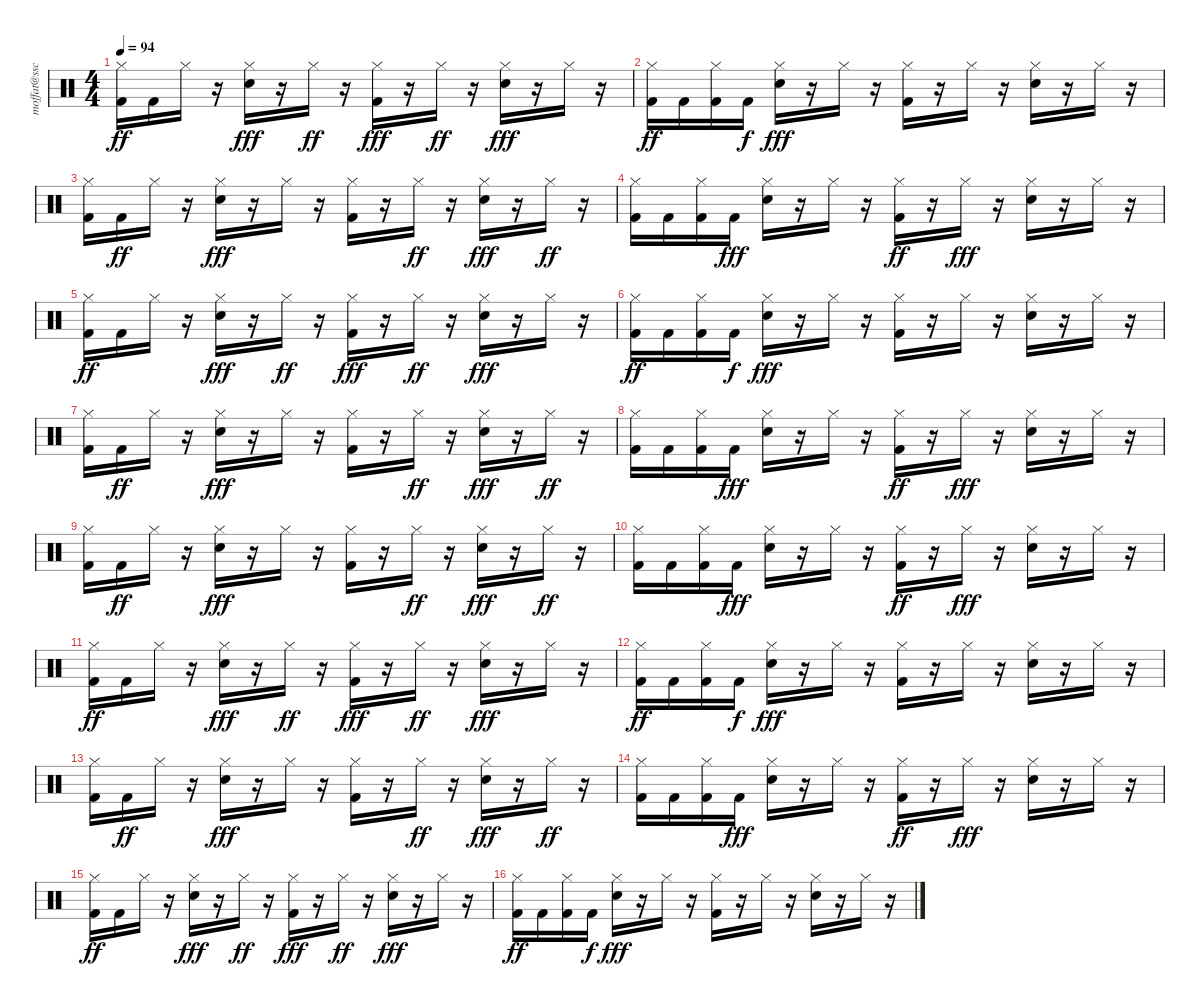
\track ("moffat@sscl." "moffat@ssc") {instrument percussion}
\staff {score}
\articulation defaults
\ts (4 4)
\tempo 94
\clef neutral
\ks c
("Kick (hit) 2" "Hi-Hat (closed)").16{dy ff} "Kick (hit) 2".16 "Hi-Hat (closed)".16 r.16 ("Hi-Hat (closed)" "Snare (hit) 2").16{dy fff} r.16 "Hi-Hat (closed)".16{dy ff} r.16 ("Kick (hit) 2" "Hi-Hat (closed)").16{dy fff} r.16 "Hi-Hat (closed)".16{dy ff} r.16 ("Snare (hit) 2" "Hi-Hat (closed)").16{dy fff} r.16 "Hi-Hat (closed)".16 r.16 |
("Hi-Hat (closed)" "Kick (hit) 2").16{dy ff} "Kick (hit) 2".16 ("Hi-Hat (closed)" "Kick (hit) 2").16 "Kick (hit) 2".16{dy f} ("Hi-Hat (closed)" "Snare (hit) 2").16{dy fff} r.16 "Hi-Hat (closed)".16 r.16 ("Hi-Hat (closed)" "Kick (hit) 2").16 r.16 "Hi-Hat (closed)".16 r.16 ("Snare (hit) 2" "Hi-Hat (closed)").16 r.16 "Hi-Hat (closed)".16 r.16 |
("Kick (hit) 2" "Hi-Hat (closed)").16 "Kick (hit) 2".16{dy ff} "Hi-Hat (closed)".16 r.16 ("Snare (hit) 2" "Hi-Hat (closed)").16{dy fff} r.16 "Hi-Hat (closed)".16 r.16 ("Kick (hit) 2" "Hi-Hat (closed)").16 r.16 "Hi-Hat (closed)".16{dy ff} r.16 ("Snare (hit) 2" "Hi-Hat (closed)").16{dy fff} r.16 "Hi-Hat (closed)".16{dy ff} r.16 |
("Hi-Hat (closed)" "Kick (hit) 2").16 "Kick (hit) 2".16 ("Hi-Hat (closed)" "Kick (hit) 2").16 "Kick (hit) 2".16{dy fff} ("Hi-Hat (closed)" "Snare (hit) 2").16 r.16 "Hi-Hat (closed)".16 r.16 ("Hi-Hat (closed)" "Kick (hit) 2").16{dy ff} r.16 "Hi-Hat (closed)".16{dy fff} r.16 ("Hi-Hat (closed)" "Snare (hit) 2").16 r.16 "Hi-Hat (closed)".16 r.16 |
("Kick (hit) 2" "Hi-Hat (closed)").16{dy ff} "Kick (hit) 2".16 "Hi-Hat (closed)".16 r.16 ("Hi-Hat (closed)" "Snare (hit) 2").16{dy fff} r.16 "Hi-Hat (closed)".16{dy ff} r.16 ("Kick (hit) 2" "Hi-Hat (closed)").16{dy fff} r.16 "Hi-Hat (closed)".16{dy ff} r.16 ("Snare (hit) 2" "Hi-Hat (closed)").16{dy fff} r.16 "Hi-Hat (closed)".16 r.16 |
("Hi-Hat (closed)" "Kick (hit) 2").16{dy ff} "Kick (hit) 2".16 ("Hi-Hat (closed)" "Kick (hit) 2").16 "Kick (hit) 2".16{dy f} ("Hi-Hat (closed)" "Snare (hit) 2").16{dy fff} r.16 "Hi-Hat (closed)".16 r.16 ("Hi-Hat (closed)" "Kick (hit) 2").16 r.16 "Hi-Hat (closed)".16 r.16 ("Snare (hit) 2" "Hi-Hat (closed)").16 r.16 "Hi-Hat (closed)".16 r.16 |
("Kick (hit) 2" "Hi-Hat (closed)").16 "Kick (hit) 2".16{dy ff} "Hi-Hat (closed)".16 r.16 ("Snare (hit) 2" "Hi-Hat (closed)").16{dy fff} r.16 "Hi-Hat (closed)".16 r.16 ("Kick (hit) 2" "Hi-Hat (closed)").16 r.16 "Hi-Hat (closed)".16{dy ff} r.16 ("Snare (hit) 2" "Hi-Hat (closed)").16{dy fff} r.16 "Hi-Hat (closed)".16{dy ff} r.16 |
("Hi-Hat (closed)" "Kick (hit) 2").16 "Kick (hit) 2".16 ("Hi-Hat (closed)" "Kick (hit) 2").16 "Kick (hit) 2".16{dy fff} ("Hi-Hat (closed)" "Snare (hit) 2").16 r.16 "Hi-Hat (closed)".16 r.16 ("Hi-Hat (closed)" "Kick (hit) 2").16{dy ff} r.16 "Hi-Hat (closed)".16{dy fff} r.16 ("Hi-Hat (closed)" "Snare (hit) 2").16 r.16 "Hi-Hat (closed)".16 r.16 |
("Kick (hit) 2" "Hi-Hat (closed)").16 "Kick (hit) 2".16{dy ff} "Hi-Hat (closed)".16 r.16 ("Snare (hit) 2" "Hi-Hat (closed)").16{dy fff} r.16 "Hi-Hat (closed)".16 r.16 ("Kick (hit) 2" "Hi-Hat (closed)").16 r.16 "Hi-Hat (closed)".16{dy ff} r.16 ("Snare (hit) 2" "Hi-Hat (closed)").16{dy fff} r.16 "Hi-Hat (closed)".16{dy ff} r.16 |
("Hi-Hat (closed)" "Kick (hit) 2").16 "Kick (hit) 2".16 ("Hi-Hat (closed)" "Kick (hit) 2").16 "Kick (hit) 2".16{dy fff} ("Hi-Hat (closed)" "Snare (hit) 2").16 r.16 "Hi-Hat (closed)".16 r.16 ("Hi-Hat (closed)" "Kick (hit) 2").16{dy ff} r.16 "Hi-Hat (closed)".16{dy fff} r.16 ("Hi-Hat (closed)" "Snare (hit) 2").16 r.16 "Hi-Hat (closed)".16 r.16 |
("Kick (hit) 2" "Hi-Hat (closed)").16{dy ff} "Kick (hit) 2".16 "Hi-Hat (closed)".16 r.16 ("Hi-Hat (closed)" "Snare (hit) 2").16{dy fff} r.16 "Hi-Hat (closed)".16{dy ff} r.16 ("Kick (hit) 2" "Hi-Hat (closed)").16{dy fff} r.16 "Hi-Hat (closed)".16{dy ff} r.16 ("Snare (hit) 2" "Hi-Hat (closed)").16{dy fff} r.16 "Hi-Hat (closed)".16 r.16 |
("Hi-Hat (closed)" "Kick (hit) 2").16{dy ff} "Kick (hit) 2".16 ("Hi-Hat (closed)" "Kick (hit) 2").16 "Kick (hit) 2".16{dy f} ("Hi-Hat (closed)" "Snare (hit) 2").16{dy fff} r.16 "Hi-Hat (closed)".16 r.16 ("Hi-Hat (closed)" "Kick (hit) 2").16 r.16 "Hi-Hat (closed)".16 r.16 ("Snare (hit) 2" "Hi-Hat (closed)").16 r.16 "Hi-Hat (closed)".16 r.16 |
("Kick (hit) 2" "Hi-Hat (closed)").16 "Kick (hit) 2".16{dy ff} "Hi-Hat (closed)".16 r.16 ("Snare (hit) 2" "Hi-Hat (closed)").16{dy fff} r.16 "Hi-Hat (closed)".16 r.16 ("Kick (hit) 2" "Hi-Hat (closed)").16 r.16 "Hi-Hat (closed)".16{dy ff} r.16 ("Snare (hit) 2" "Hi-Hat (closed)").16{dy fff} r.16 "Hi-Hat (closed)".16{dy ff} r.16 |
("Hi-Hat (closed)" "Kick (hit) 2").16 "Kick (hit) 2".16 ("Hi-Hat (closed)" "Kick (hit) 2").16 "Kick (hit) 2".16{dy fff} ("Hi-Hat (closed)" "Snare (hit) 2").16 r.16 "Hi-Hat (closed)".16 r.16 ("Hi-Hat (closed)" "Kick (hit) 2").16{dy ff} r.16 "Hi-Hat (closed)".16{dy fff} r.16 ("Hi-Hat (closed)" "Snare (hit) 2").16 r.16 "Hi-Hat (closed)".16 r.16 |
("Kick (hit) 2" "Hi-Hat (closed)").16{dy ff} "Kick (hit) 2".16 "Hi-Hat (closed)".16 r.16 ("Hi-Hat (closed)" "Snare (hit) 2").16{dy fff} r.16 "Hi-Hat (closed)".16{dy ff} r.16 ("Kick (hit) 2" "Hi-Hat (closed)").16{dy fff} r.16 "Hi-Hat (closed)".16{dy ff} r.16 ("Snare (hit) 2" "Hi-Hat (closed)").16{dy fff} r.16 "Hi-Hat (closed)".16 r.16 |
("Hi-Hat (closed)" "Kick (hit) 2").16{dy ff} "Kick (hit) 2".16 ("Hi-Hat (closed)" "Kick (hit) 2").16 "Kick (hit) 2".16{dy f} ("Hi-Hat (closed)" "Snare (hit) 2").16{dy fff} r.16 "Hi-Hat (closed)".16 r.16 ("Hi-Hat (closed)" "Kick (hit) 2").16 r.16 "Hi-Hat (closed)".16 r.16 ("Snare (hit) 2" "Hi-Hat (closed)").16 r.16 "Hi-Hat (closed)".16 r.16
